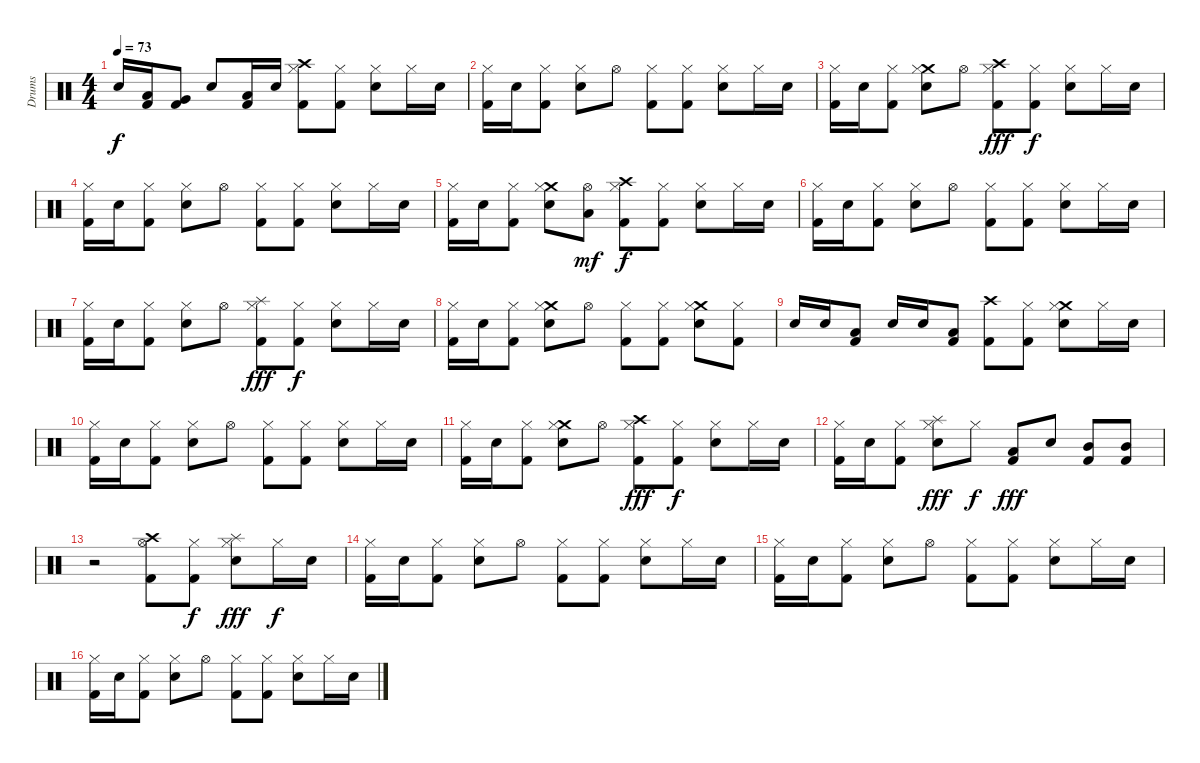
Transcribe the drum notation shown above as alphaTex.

\track ("Drums" "Drums") {instrument percussion}
\staff {score}
\articulation defaults
\ts (4 4)
\tempo 73
\clef neutral
\ks c "Electric Snare (hit)".16{dy f}
("Low Tom (hit)" "Kick (hit) 2").16 ("Very Low Tom (hit)" "Kick (hit) 2").8 "Electric Snare (hit)".8 ("Low Tom (hit)" "Kick (hit) 2").16 "Electric Snare (hit)".16 ("Crash high (hit)" "Hi-Hat (closed)" "Kick (hit) 2").8 ("Hi-Hat (closed)" "Kick (hit) 2").8 ("Hi-Hat (closed)" "Electric Snare (hit)").8 "Hi-Hat (closed)".16 "Electric Snare (hit)".16 |
("Hi-Hat (closed)" "Kick (hit) 2").16 "Electric Snare (hit)".16 ("Hi-Hat (closed)" "Kick (hit) 2").8 ("Hi-Hat (closed)" "Electric Snare (hit)").8 "Hi-Hat (open)".8 ("Hi-Hat (closed)" "Kick (hit) 2").8 ("Hi-Hat (closed)" "Kick (hit) 2").8 ("Hi-Hat (closed)" "Electric Snare (hit)").8 "Hi-Hat (closed)".16 "Electric Snare (hit)".16 |
("Hi-Hat (closed)" "Kick (hit) 2").16 "Electric Snare (hit)".16 ("Hi-Hat (closed)" "Kick (hit) 2").8 ("Crash medium (hit)" "Hi-Hat (closed)" "Electric Snare (hit)").8 "Hi-Hat (open)".8 ("Crash high (hit)" "Hi-Hat (closed)" "Kick (hit) 2").8{dy fff} ("Hi-Hat (closed)" "Kick (hit) 2").8{dy f} ("Hi-Hat (closed)" "Electric Snare (hit)").8 "Hi-Hat (closed)".16 "Electric Snare (hit)".16 |
("Hi-Hat (closed)" "Kick (hit) 2").16 "Electric Snare (hit)".16 ("Hi-Hat (closed)" "Kick (hit) 2").8 ("Hi-Hat (closed)" "Electric Snare (hit)").8 "Hi-Hat (open)".8 ("Hi-Hat (closed)" "Kick (hit) 2").8 ("Hi-Hat (closed)" "Kick (hit) 2").8 ("Hi-Hat (closed)" "Electric Snare (hit)").8 "Hi-Hat (closed)".16 "Electric Snare (hit)".16 |
("Hi-Hat (closed)" "Kick (hit) 2").16 "Electric Snare (hit)".16 ("Hi-Hat (closed)" "Kick (hit) 2").8 ("Crash medium (hit)" "Hi-Hat (closed)" "Electric Snare (hit)").8 ("Hi-Hat (open)" "Low Tom (hit)").8{dy mf} ("Crash high (hit)" "Hi-Hat (closed)" "Kick (hit) 2").8{dy f} ("Hi-Hat (closed)" "Kick (hit) 2").8 ("Hi-Hat (closed)" "Electric Snare (hit)").8 "Hi-Hat (closed)".16 "Electric Snare (hit)".16 |
("Hi-Hat (closed)" "Kick (hit) 2").16 "Electric Snare (hit)".16 ("Hi-Hat (closed)" "Kick (hit) 2").8 ("Hi-Hat (closed)" "Electric Snare (hit)").8 "Hi-Hat (open)".8 ("Hi-Hat (closed)" "Kick (hit) 2").8 ("Hi-Hat (closed)" "Kick (hit) 2").8 ("Hi-Hat (closed)" "Electric Snare (hit)").8 "Hi-Hat (closed)".16 "Electric Snare (hit)".16 |
("Hi-Hat (closed)" "Kick (hit) 2").16 "Electric Snare (hit)".16 ("Hi-Hat (closed)" "Kick (hit) 2").8 ("Hi-Hat (closed)" "Electric Snare (hit)").8 "Hi-Hat (open)".8 ("Splash (hit)" "Hi-Hat (closed)" "Kick (hit) 2").8{dy fff} ("Hi-Hat (closed)" "Kick (hit) 2").8{dy f} ("Hi-Hat (closed)" "Electric Snare (hit)").8 "Hi-Hat (closed)".16 "Electric Snare (hit)".16 |
("Hi-Hat (closed)" "Kick (hit) 2").16 "Electric Snare (hit)".16 ("Hi-Hat (closed)" "Kick (hit) 2").8 ("Crash medium (hit)" "Hi-Hat (closed)" "Electric Snare (hit)").8 "Hi-Hat (open)".8 ("Hi-Hat (closed)" "Kick (hit) 2").8 ("Hi-Hat (closed)" "Kick (hit) 2").8 ("Crash medium (hit)" "Hi-Hat (closed)" "Electric Snare (hit)").8 ("Hi-Hat (closed)" "Kick (hit) 2").8 |
"Electric Snare (hit)".16 "Electric Snare (hit)".16 ("Low Tom (hit)" "Kick (hit) 2").8 "Electric Snare (hit)".16 "Electric Snare (hit)".16 ("Low Tom (hit)" "Kick (hit) 2").8 ("Crash high (hit)" "Kick (hit) 2").8 ("Hi-Hat (closed)" "Kick (hit) 2").8 ("Crash medium (hit)" "Hi-Hat (closed)" "Electric Snare (hit)").8 "Hi-Hat (closed)".16 "Electric Snare (hit)".16 |
("Hi-Hat (closed)" "Kick (hit) 2").16 "Electric Snare (hit)".16 ("Hi-Hat (closed)" "Kick (hit) 2").8 ("Hi-Hat (closed)" "Electric Snare (hit)").8 "Hi-Hat (open)".8 ("Hi-Hat (closed)" "Kick (hit) 2").8 ("Hi-Hat (closed)" "Kick (hit) 2").8 ("Hi-Hat (closed)" "Electric Snare (hit)").8 "Hi-Hat (closed)".16 "Electric Snare (hit)".16 |
("Hi-Hat (closed)" "Kick (hit) 2").16 "Electric Snare (hit)".16 ("Hi-Hat (closed)" "Kick (hit) 2").8 ("Crash medium (hit)" "Hi-Hat (closed)" "Electric Snare (hit)").8 "Hi-Hat (open)".8 ("Crash high (hit)" "Hi-Hat (closed)" "Kick (hit) 2").8{dy fff} ("Hi-Hat (closed)" "Kick (hit) 2").8{dy f} ("Hi-Hat (closed)" "Electric Snare (hit)").8 "Hi-Hat (closed)".16 "Electric Snare (hit)".16 |
("Hi-Hat (closed)" "Kick (hit) 2").16 "Electric Snare (hit)".16 ("Hi-Hat (closed)" "Kick (hit) 2").8 ("Splash (hit)" "Hi-Hat (closed)" "Electric Snare (hit)").8{dy fff} "Hi-Hat (closed)".8{dy f} ("Low Tom (hit)" "Kick (hit) 2").8{dy fff} "Electric Snare (hit)".8 ("Mid Tom (hit)" "Kick (hit) 2").8 ("Mid Tom (hit)" "Kick (hit) 2").8 |
r.2 ("Crash high (hit)" "Hi-Hat (open)" "Kick (hit) 2").8 ("Hi-Hat (closed)" "Kick (hit) 2").8{dy f} ("Splash (hit)" "Hi-Hat (closed)" "Electric Snare (hit)").8{dy fff} "Hi-Hat (closed)".16{dy f} "Electric Snare (hit)".16 |
("Hi-Hat (closed)" "Kick (hit) 2").16 "Electric Snare (hit)".16 ("Hi-Hat (closed)" "Kick (hit) 2").8 ("Hi-Hat (closed)" "Electric Snare (hit)").8 "Hi-Hat (open)".8 ("Hi-Hat (closed)" "Kick (hit) 2").8 ("Hi-Hat (closed)" "Kick (hit) 2").8 ("Hi-Hat (closed)" "Electric Snare (hit)").8 "Hi-Hat (closed)".16 "Electric Snare (hit)".16 |
("Hi-Hat (closed)" "Kick (hit) 2").16 "Electric Snare (hit)".16 ("Hi-Hat (closed)" "Kick (hit) 2").8 ("Hi-Hat (closed)" "Electric Snare (hit)").8 "Hi-Hat (open)".8 ("Hi-Hat (closed)" "Kick (hit) 2").8 ("Hi-Hat (closed)" "Kick (hit) 2").8 ("Hi-Hat (closed)" "Electric Snare (hit)").8 "Hi-Hat (closed)".16 "Electric Snare (hit)".16 |
("Hi-Hat (closed)" "Kick (hit) 2").16 "Electric Snare (hit)".16 ("Hi-Hat (closed)" "Kick (hit) 2").8 ("Hi-Hat (closed)" "Electric Snare (hit)").8 "Hi-Hat (open)".8 ("Hi-Hat (closed)" "Kick (hit) 2").8 ("Hi-Hat (closed)" "Kick (hit) 2").8 ("Hi-Hat (closed)" "Electric Snare (hit)").8 "Hi-Hat (closed)".16 "Electric Snare (hit)".16
